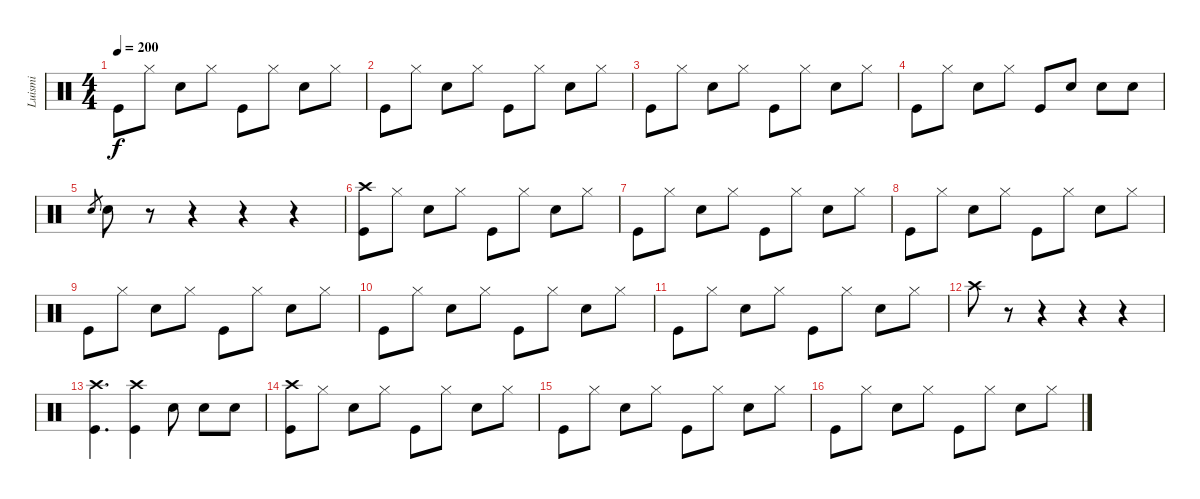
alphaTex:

\track ("Luismi" "Luismi") {instrument percussion}
\staff {score}
\articulation defaults
\ts (4 4)
\tempo 200
\clef neutral
\ks c "Kick (hit)".8{dy f} "Hi-Hat (closed)".8 "Snare (hit) 2".8 "Hi-Hat (closed)".8 "Kick (hit)".8 "Hi-Hat (closed)".8 "Snare (hit) 2".8 "Hi-Hat (closed)".8
|
"Kick (hit)".8 "Hi-Hat (closed)".8 "Snare (hit) 2".8 "Hi-Hat (closed)".8 "Kick (hit)".8 "Hi-Hat (closed)".8 "Snare (hit) 2".8 "Hi-Hat (closed)".8 |
"Kick (hit)".8 "Hi-Hat (closed)".8 "Snare (hit) 2".8 "Hi-Hat (closed)".8 "Kick (hit)".8 "Hi-Hat (closed)".8 "Snare (hit) 2".8 "Hi-Hat (closed)".8 |
"Kick (hit)".8 "Hi-Hat (closed)".8 "Snare (hit) 2".8 "Hi-Hat (closed)".8 "Kick (hit)".8 "Snare (hit) 2".8 "Snare (hit) 2".8 "Snare (hit) 2".8 |
"Snare (hit) 2".8{gr} "Snare (hit) 2".8 r.8 r.4 r.4 r.4 |
("Crash high (hit)" "Kick (hit)").8 "Hi-Hat (closed)".8 "Snare (hit) 2".8 "Hi-Hat (closed)".8 "Kick (hit)".8 "Hi-Hat (closed)".8 "Snare (hit) 2".8 "Hi-Hat (closed)".8 |
"Kick (hit)".8 "Hi-Hat (closed)".8 "Snare (hit) 2".8 "Hi-Hat (closed)".8 "Kick (hit)".8 "Hi-Hat (closed)".8 "Snare (hit) 2".8 "Hi-Hat (closed)".8 |
"Kick (hit)".8 "Hi-Hat (closed)".8 "Snare (hit) 2".8 "Hi-Hat (closed)".8 "Kick (hit)".8 "Hi-Hat (closed)".8 "Snare (hit) 2".8 "Hi-Hat (closed)".8 |
"Kick (hit)".8 "Hi-Hat (closed)".8 "Snare (hit) 2".8 "Hi-Hat (closed)".8 "Kick (hit)".8 "Hi-Hat (closed)".8 "Snare (hit) 2".8 "Hi-Hat (closed)".8 |
"Kick (hit)".8 "Hi-Hat (closed)".8 "Snare (hit) 2".8 "Hi-Hat (closed)".8 "Kick (hit)".8 "Hi-Hat (closed)".8 "Snare (hit) 2".8 "Hi-Hat (closed)".8 |
"Kick (hit)".8 "Hi-Hat (closed)".8 "Snare (hit) 2".8 "Hi-Hat (closed)".8 "Kick (hit)".8 "Hi-Hat (closed)".8 "Snare (hit) 2".8 "Hi-Hat (closed)".8 |
"Crash high (hit)".8 r.8 r.4 r.4 r.4 |
("Kick (hit)" "Crash high (hit)").4{d} ("Kick (hit)" "Crash high (hit)").4 "Snare (hit) 2".8 "Snare (hit) 2".8 "Snare (hit) 2".8 |
("Crash high (hit)" "Kick (hit)").8 "Hi-Hat (closed)".8 "Snare (hit) 2".8 "Hi-Hat (closed)".8 "Kick (hit)".8 "Hi-Hat (closed)".8 "Snare (hit) 2".8 "Hi-Hat (closed)".8 |
"Kick (hit)".8 "Hi-Hat (closed)".8 "Snare (hit) 2".8 "Hi-Hat (closed)".8 "Kick (hit)".8 "Hi-Hat (closed)".8 "Snare (hit) 2".8 "Hi-Hat (closed)".8 |
"Kick (hit)".8 "Hi-Hat (closed)".8 "Snare (hit) 2".8 "Hi-Hat (closed)".8 "Kick (hit)".8 "Hi-Hat (closed)".8 "Snare (hit) 2".8 "Hi-Hat (closed)".8
